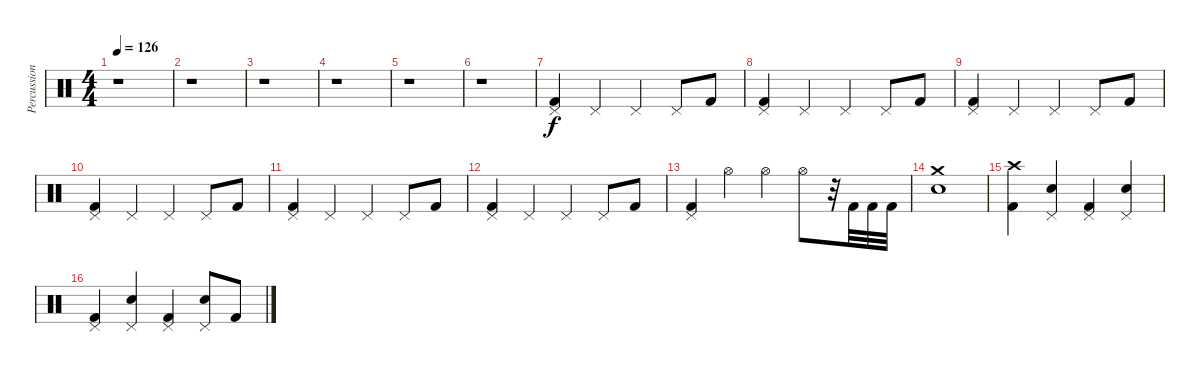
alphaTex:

\track ("Percussion" "Percussion") {instrument percussion}
\staff {score}
\articulation defaults
\ts (4 4)
\tempo 126
\clef neutral
\ks c
r.1{dy f} |
r.1 |
r.1 |
r.1 |
r.1 |
r.1 |
("Pedal Hi-Hat (hit)" "Kick (hit) 2").4 "Pedal Hi-Hat (hit)".4 "Pedal Hi-Hat (hit)".4 "Pedal Hi-Hat (hit)".8 "Kick (hit) 2".8 |
("Pedal Hi-Hat (hit)" "Kick (hit) 2").4 "Pedal Hi-Hat (hit)".4 "Pedal Hi-Hat (hit)".4 "Pedal Hi-Hat (hit)".8 "Kick (hit) 2".8 |
("Pedal Hi-Hat (hit)" "Kick (hit) 2").4 "Pedal Hi-Hat (hit)".4 "Pedal Hi-Hat (hit)".4 "Pedal Hi-Hat (hit)".8 "Kick (hit) 2".8 |
("Pedal Hi-Hat (hit)" "Kick (hit) 2").4 "Pedal Hi-Hat (hit)".4 "Pedal Hi-Hat (hit)".4 "Pedal Hi-Hat (hit)".8 "Kick (hit) 2".8 |
("Pedal Hi-Hat (hit)" "Kick (hit) 2").4 "Pedal Hi-Hat (hit)".4 "Pedal Hi-Hat (hit)".4 "Pedal Hi-Hat (hit)".8 "Kick (hit) 2".8 |
("Pedal Hi-Hat (hit)" "Kick (hit) 2").4 "Pedal Hi-Hat (hit)".4 "Pedal Hi-Hat (hit)".4 "Pedal Hi-Hat (hit)".8 "Kick (hit) 2".8 |
("Pedal Hi-Hat (hit)" "Kick (hit) 2").4 "Hi-Hat (open)".4 "Hi-Hat (open)".4 "Hi-Hat (open)".8 r.32 "Kick (hit) 2".32 "Kick (hit) 2".32 "Kick (hit) 2".32 |
("Crash medium (hit)" "Snare (hit) 2").1 |
("Crash high (hit)" "Kick (hit) 2").4 ("Pedal Hi-Hat (hit)" "Snare (hit) 2").4 ("Pedal Hi-Hat (hit)" "Kick (hit) 2").4 ("Pedal Hi-Hat (hit)" "Snare (hit) 2").4 |
("Pedal Hi-Hat (hit)" "Kick (hit) 2").4 ("Pedal Hi-Hat (hit)" "Snare (hit) 2").4 ("Pedal Hi-Hat (hit)" "Kick (hit) 2").4 ("Pedal Hi-Hat (hit)" "Snare (hit) 2").8 "Kick (hit) 2".8
